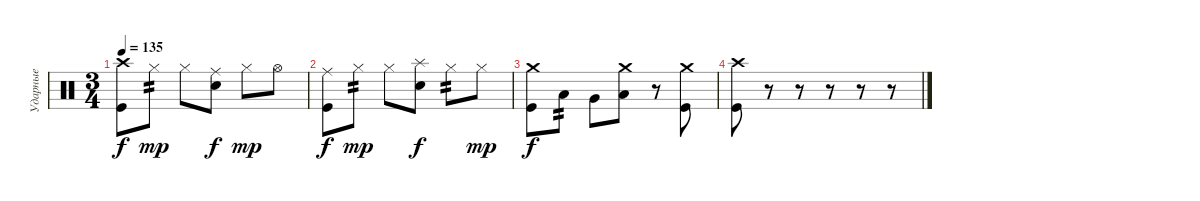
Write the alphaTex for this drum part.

\track ("Ударные" "Ударные") {instrument percussion}
\staff {score}
\articulation defaults
\ts (3 4)
\tempo 135
\clef neutral
\ks c
("Crash high (hit)" "Kick (hit)").8{dy f} "Hi-Hat (closed)".8{tp 2 dy mp} "Hi-Hat (closed)".8 ("Ride (middle)" "Snare (hit) 2").8{dy f} "Hi-Hat (closed)".8{dy mp} "Hi-Hat (open)".8 |
("Ride (middle)" "Kick (hit)").8{dy f} "Hi-Hat (closed)".8{tp 2 dy mp} "Hi-Hat (closed)".8 ("Splash (hit)" "Snare (hit) 2").8{dy f} "Hi-Hat (closed)".8{tp 2} "Hi-Hat (closed)".8{dy mp} |
("Crash medium (hit)" "Kick (hit)").8{dy f} "Low Tom (hit)".8{tp 2} "Very Low Tom (hit)".8 ("Crash medium (hit)" "Low Floor Tom (hit)").8 r.8 ("Crash medium (hit)" "Kick (hit)").8 |
("Crash high (hit)" "Kick (hit)").8 r.8 r.8 r.8 r.8 r.8
